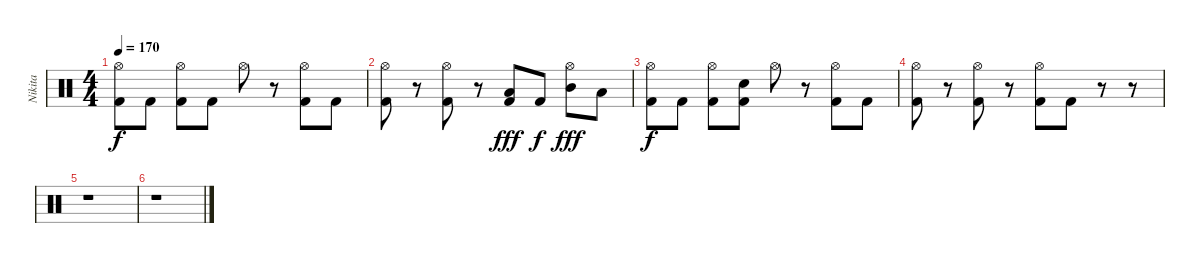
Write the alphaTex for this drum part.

\track ("Nikita" "Nikita") {instrument percussion}
\staff {score}
\articulation defaults
\ts (4 4)
\tempo 170
\clef neutral
\ks c
("Hi-Hat (open)" "Kick (hit) 2").8{dy f} "Kick (hit) 2".8 ("Hi-Hat (open)" "Kick (hit) 2").8 "Kick (hit) 2".8 "Hi-Hat (open)".8 r.8 ("Hi-Hat (open)" "Kick (hit) 2").8 "Kick (hit) 2".8 |
("Hi-Hat (open)" "Kick (hit) 2").8 r.8 ("Hi-Hat (open)" "Kick (hit) 2").8 r.8 ("Low Tom (hit)" "Kick (hit) 2").8{dy fff} "Kick (hit) 2".8{dy f} ("Hi-Hat (open)" "Mid Tom (hit)").8{dy fff} "Low Tom (hit)".8 |
("Hi-Hat (open)" "Kick (hit) 2").8{dy f} "Kick (hit) 2".8 ("Hi-Hat (open)" "Kick (hit) 2").8 ("Electric Snare (hit)" "Kick (hit) 2").8 "Hi-Hat (open)".8 r.8 ("Hi-Hat (open)" "Kick (hit) 2").8 "Kick (hit) 2".8 |
("Hi-Hat (open)" "Kick (hit) 2").8 r.8 ("Hi-Hat (open)" "Kick (hit) 2").8 r.8 ("Hi-Hat (open)" "Kick (hit) 2").8 "Kick (hit) 2".8 r.8 r.8 |
r.1 |
r.1
